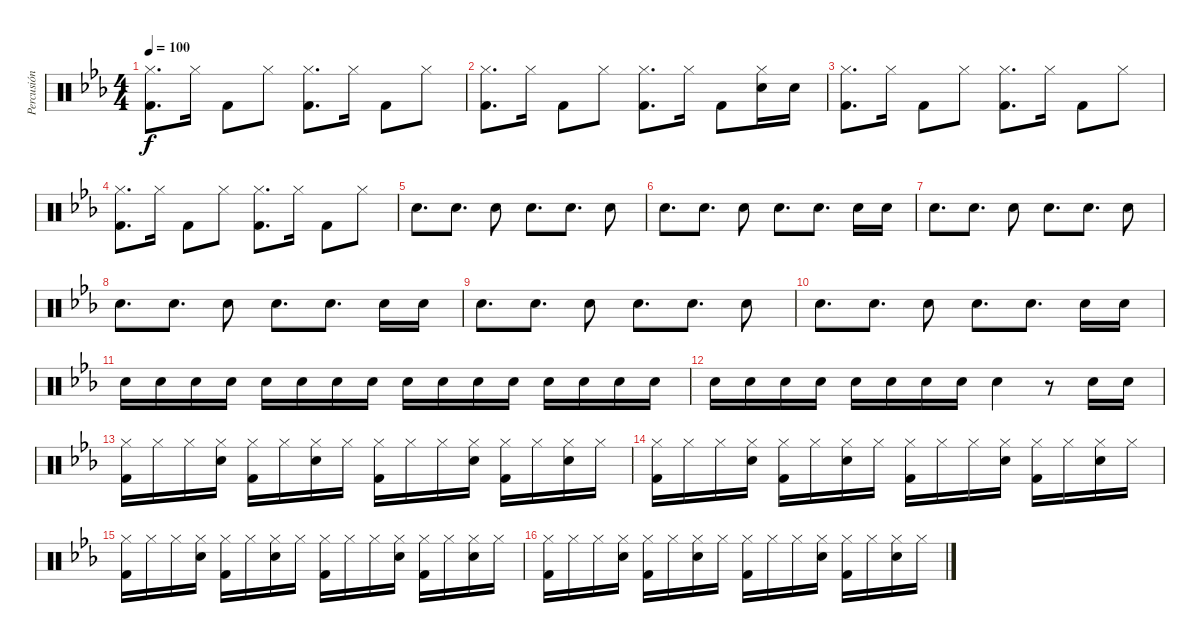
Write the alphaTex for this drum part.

\track ("Percusión" "Percusión") {instrument percussion}
\staff {score}
\articulation defaults
\ts (4 4)
\tempo 100
\clef neutral
\ks eb
("Hi-Hat (closed)" "Kick (hit) 2").8{d dy f} "Hi-Hat (closed)".16 "Kick (hit) 2".8 "Hi-Hat (closed)".8 ("Hi-Hat (closed)" "Kick (hit) 2").8{d} "Hi-Hat (closed)".16 "Kick (hit) 2".8 "Hi-Hat (closed)".8 |
("Hi-Hat (closed)" "Kick (hit) 2").8{d} "Hi-Hat (closed)".16 "Kick (hit) 2".8 "Hi-Hat (closed)".8 ("Hi-Hat (closed)" "Kick (hit) 2").8{d} "Hi-Hat (closed)".16 "Kick (hit) 2".8 ("Hi-Hat (closed)" "Electric Snare (hit)").16 "Electric Snare (hit)".16 |
("Hi-Hat (closed)" "Kick (hit) 2").8{d} "Hi-Hat (closed)".16 "Kick (hit) 2".8 "Hi-Hat (closed)".8 ("Hi-Hat (closed)" "Kick (hit) 2").8{d} "Hi-Hat (closed)".16 "Kick (hit) 2".8 "Hi-Hat (closed)".8 |
("Hi-Hat (closed)" "Kick (hit) 2").8{d} "Hi-Hat (closed)".16 "Kick (hit) 2".8 "Hi-Hat (closed)".8 ("Hi-Hat (closed)" "Kick (hit) 2").8{d} "Hi-Hat (closed)".16 "Kick (hit) 2".8 "Hi-Hat (closed)".8 |
"Electric Snare (hit)".8{d} "Electric Snare (hit)".8{d} "Electric Snare (hit)".8 "Electric Snare (hit)".8{d} "Electric Snare (hit)".8{d} "Electric Snare (hit)".8 |
"Electric Snare (hit)".8{d} "Electric Snare (hit)".8{d} "Electric Snare (hit)".8 "Electric Snare (hit)".8{d} "Electric Snare (hit)".8{d} "Electric Snare (hit)".16 "Electric Snare (hit)".16 |
"Electric Snare (hit)".8{d} "Electric Snare (hit)".8{d} "Electric Snare (hit)".8 "Electric Snare (hit)".8{d} "Electric Snare (hit)".8{d} "Electric Snare (hit)".8 |
"Electric Snare (hit)".8{d} "Electric Snare (hit)".8{d} "Electric Snare (hit)".8 "Electric Snare (hit)".8{d} "Electric Snare (hit)".8{d} "Electric Snare (hit)".16 "Electric Snare (hit)".16 |
"Electric Snare (hit)".8{d} "Electric Snare (hit)".8{d} "Electric Snare (hit)".8 "Electric Snare (hit)".8{d} "Electric Snare (hit)".8{d} "Electric Snare (hit)".8 |
"Electric Snare (hit)".8{d} "Electric Snare (hit)".8{d} "Electric Snare (hit)".8 "Electric Snare (hit)".8{d} "Electric Snare (hit)".8{d} "Electric Snare (hit)".16 "Electric Snare (hit)".16 |
"Electric Snare (hit)".16 "Electric Snare (hit)".16 "Electric Snare (hit)".16 "Electric Snare (hit)".16 "Electric Snare (hit)".16 "Electric Snare (hit)".16 "Electric Snare (hit)".16 "Electric Snare (hit)".16 "Electric Snare (hit)".16 "Electric Snare (hit)".16 "Electric Snare (hit)".16 "Electric Snare (hit)".16 "Electric Snare (hit)".16 "Electric Snare (hit)".16 "Electric Snare (hit)".16 "Electric Snare (hit)".16 |
"Electric Snare (hit)".16 "Electric Snare (hit)".16 "Electric Snare (hit)".16 "Electric Snare (hit)".16 "Electric Snare (hit)".16 "Electric Snare (hit)".16 "Electric Snare (hit)".16 "Electric Snare (hit)".16 "Electric Snare (hit)".4 r.8 "Electric Snare (hit)".16 "Electric Snare (hit)".16 |
("Hi-Hat (closed)" "Kick (hit) 2").16 "Hi-Hat (closed)".16 "Hi-Hat (closed)".16 ("Hi-Hat (closed)" "Electric Snare (hit)").16 ("Hi-Hat (closed)" "Kick (hit) 2").16 "Hi-Hat (closed)".16 ("Hi-Hat (closed)" "Electric Snare (hit)").16 "Hi-Hat (closed)".16 ("Hi-Hat (closed)" "Kick (hit) 2").16 "Hi-Hat (closed)".16 "Hi-Hat (closed)".16 ("Hi-Hat (closed)" "Electric Snare (hit)").16 ("Hi-Hat (closed)" "Kick (hit) 2").16 "Hi-Hat (closed)".16 ("Hi-Hat (closed)" "Electric Snare (hit)").16 "Hi-Hat (closed)".16 |
("Hi-Hat (closed)" "Kick (hit) 2").16 "Hi-Hat (closed)".16 "Hi-Hat (closed)".16 ("Hi-Hat (closed)" "Electric Snare (hit)").16 ("Hi-Hat (closed)" "Kick (hit) 2").16 "Hi-Hat (closed)".16 ("Hi-Hat (closed)" "Electric Snare (hit)").16 "Hi-Hat (closed)".16 ("Hi-Hat (closed)" "Kick (hit) 2").16 "Hi-Hat (closed)".16 "Hi-Hat (closed)".16 ("Hi-Hat (closed)" "Electric Snare (hit)").16 ("Hi-Hat (closed)" "Kick (hit) 2").16 "Hi-Hat (closed)".16 ("Hi-Hat (closed)" "Electric Snare (hit)").16 "Hi-Hat (closed)".16 |
("Hi-Hat (closed)" "Kick (hit) 2").16 "Hi-Hat (closed)".16 "Hi-Hat (closed)".16 ("Hi-Hat (closed)" "Electric Snare (hit)").16 ("Hi-Hat (closed)" "Kick (hit) 2").16 "Hi-Hat (closed)".16 ("Hi-Hat (closed)" "Electric Snare (hit)").16 "Hi-Hat (closed)".16 ("Hi-Hat (closed)" "Kick (hit) 2").16 "Hi-Hat (closed)".16 "Hi-Hat (closed)".16 ("Hi-Hat (closed)" "Electric Snare (hit)").16 ("Hi-Hat (closed)" "Kick (hit) 2").16 "Hi-Hat (closed)".16 ("Hi-Hat (closed)" "Electric Snare (hit)").16 "Hi-Hat (closed)".16 |
("Hi-Hat (closed)" "Kick (hit) 2").16 "Hi-Hat (closed)".16 "Hi-Hat (closed)".16 ("Hi-Hat (closed)" "Electric Snare (hit)").16 ("Hi-Hat (closed)" "Kick (hit) 2").16 "Hi-Hat (closed)".16 ("Hi-Hat (closed)" "Electric Snare (hit)").16 "Hi-Hat (closed)".16 ("Hi-Hat (closed)" "Kick (hit) 2").16 "Hi-Hat (closed)".16 "Hi-Hat (closed)".16 ("Hi-Hat (closed)" "Electric Snare (hit)").16 ("Hi-Hat (closed)" "Kick (hit) 2").16 "Hi-Hat (closed)".16 ("Hi-Hat (closed)" "Electric Snare (hit)").16 "Hi-Hat (closed)".16
